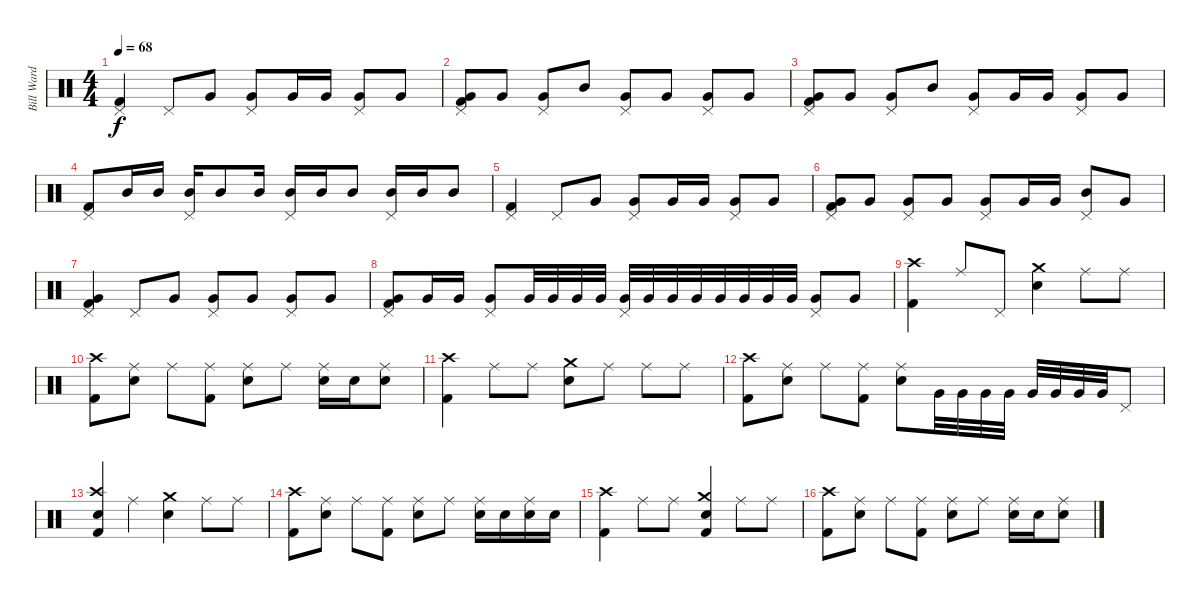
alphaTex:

\track ("Bill Ward - Drums" "Bill Ward ") {instrument percussion}
\staff {score}
\articulation defaults
\ts (4 4)
\tempo 68
\clef neutral
\ks c
("Pedal Hi-Hat (hit)" "Kick (hit) 2").4{dy f} "Pedal Hi-Hat (hit)".8 "Very Low Tom (hit)".8 ("Pedal Hi-Hat (hit)" "Very Low Tom (hit)").8 "Very Low Tom (hit)".16 "Very Low Tom (hit)".16 ("Pedal Hi-Hat (hit)" "Very Low Tom (hit)").8 "Very Low Tom (hit)".8 |
("Pedal Hi-Hat (hit)" "Very Low Tom (hit)" "Kick (hit) 2").8 "Very Low Tom (hit)".8 ("Pedal Hi-Hat (hit)" "Very Low Tom (hit)").8 "Mid Tom (hit)".8 ("Pedal Hi-Hat (hit)" "Very Low Tom (hit)").8 "Very Low Tom (hit)".8 ("Pedal Hi-Hat (hit)" "Very Low Tom (hit)").8 "Very Low Tom (hit)".8 |
("Pedal Hi-Hat (hit)" "Very Low Tom (hit)" "Kick (hit) 2").8 "Very Low Tom (hit)".8 ("Pedal Hi-Hat (hit)" "Very Low Tom (hit)").8 "Mid Tom (hit)".8 ("Pedal Hi-Hat (hit)" "Very Low Tom (hit)").8 "Very Low Tom (hit)".16 "Very Low Tom (hit)".16 ("Pedal Hi-Hat (hit)" "Very Low Tom (hit)").8 "Very Low Tom (hit)".8 |
("Pedal Hi-Hat (hit)" "Kick (hit) 2").8 "Mid Tom (hit)".16 "Mid Tom (hit)".16 ("Pedal Hi-Hat (hit)" "Mid Tom (hit)").16 "Mid Tom (hit)".8 "Mid Tom (hit)".16 ("Pedal Hi-Hat (hit)" "Mid Tom (hit)").16 "Mid Tom (hit)".16 "Mid Tom (hit)".8 ("Pedal Hi-Hat (hit)" "Mid Tom (hit)").16 "Mid Tom (hit)".16 "Mid Tom (hit)".8 |
("Pedal Hi-Hat (hit)" "Kick (hit) 2").4 "Pedal Hi-Hat (hit)".8 "Very Low Tom (hit)".8 ("Pedal Hi-Hat (hit)" "Very Low Tom (hit)").8 "Very Low Tom (hit)".16 "Very Low Tom (hit)".16 ("Pedal Hi-Hat (hit)" "Very Low Tom (hit)").8 "Very Low Tom (hit)".8 |
("Pedal Hi-Hat (hit)" "Very Low Tom (hit)" "Kick (hit) 2").8 "Very Low Tom (hit)".8 ("Pedal Hi-Hat (hit)" "Very Low Tom (hit)").8 "Very Low Tom (hit)".8 ("Pedal Hi-Hat (hit)" "Very Low Tom (hit)").8 "Very Low Tom (hit)".16 "Very Low Tom (hit)".16 ("Pedal Hi-Hat (hit)" "Mid Tom (hit)").8 "Very Low Tom (hit)".8 |
("Pedal Hi-Hat (hit)" "Very Low Tom (hit)" "Kick (hit) 2").4 "Pedal Hi-Hat (hit)".8 "Very Low Tom (hit)".8 ("Pedal Hi-Hat (hit)" "Very Low Tom (hit)").8 "Very Low Tom (hit)".8 ("Pedal Hi-Hat (hit)" "Very Low Tom (hit)").8 "Very Low Tom (hit)".8 |
("Pedal Hi-Hat (hit)" "Very Low Tom (hit)" "Kick (hit) 2").8 "Very Low Tom (hit)".16 "Very Low Tom (hit)".16 ("Pedal Hi-Hat (hit)" "Very Low Tom (hit)").8 "Very Low Tom (hit)".32 "Very Low Tom (hit)".32 "Very Low Tom (hit)".32 "Very Low Tom (hit)".32 ("Pedal Hi-Hat (hit)" "Very Low Tom (hit)").32 "Very Low Tom (hit)".32 "Very Low Tom (hit)".32 "Very Low Tom (hit)".32 "Very Low Tom (hit)".32 "Very Low Tom (hit)".32 "Very Low Tom (hit)".32 "Very Low Tom (hit)".32 ("Pedal Hi-Hat (hit)" "Very Low Tom (hit)").8 "Very Low Tom (hit)".8 |
("Crash high (hit)" "Kick (hit) 2").4 "Ride (middle)".8 "Pedal Hi-Hat (hit)".8 ("Crash medium (hit)" "Snare (hit) 2").4 "Ride (middle)".8 "Ride (middle)".8 |
("Crash high (hit)" "Kick (hit) 2").8 ("Ride (middle)" "Snare (hit) 2").8 "Ride (middle)".8 ("Ride (middle)" "Kick (hit) 2").8 ("Ride (middle)" "Snare (hit) 2").8 "Ride (middle)".8 ("Ride (middle)" "Snare (hit) 2").16 "Snare (hit) 2".16 ("Ride (middle)" "Snare (hit) 2").8 |
("Crash high (hit)" "Kick (hit) 2").4 "Ride (middle)".8 "Ride (middle)".8 ("Crash medium (hit)" "Snare (hit) 2").8 "Ride (middle)".8 "Ride (middle)".8 "Ride (middle)".8 |
("Crash high (hit)" "Kick (hit) 2").8 ("Ride (middle)" "Snare (hit) 2").8 "Ride (middle)".8 ("Ride (middle)" "Kick (hit) 2").8 ("Ride (middle)" "Snare (hit) 2").8 "Very Low Tom (hit)".32 "Very Low Tom (hit)".32 "Very Low Tom (hit)".32 "Very Low Tom (hit)".32 "Very Low Tom (hit)".32 "Very Low Tom (hit)".32 "Very Low Tom (hit)".32 "Very Low Tom (hit)".32 "Pedal Hi-Hat (hit)".8 |
("Crash high (hit)" "Snare (hit) 2" "Kick (hit) 2").4 "Ride (middle)".4 ("Crash medium (hit)" "Snare (hit) 2").4 "Ride (middle)".8 "Ride (middle)".8 |
("Crash high (hit)" "Kick (hit) 2").8 ("Ride (middle)" "Snare (hit) 2").8 "Ride (middle)".8 ("Ride (middle)" "Kick (hit) 2").8 ("Ride (middle)" "Snare (hit) 2").8 "Ride (middle)".8 ("Ride (middle)" "Snare (hit) 2").16 "Snare (hit) 2".16 ("Ride (middle)" "Snare (hit) 2").16 "Snare (hit) 2".16 |
("Crash high (hit)" "Kick (hit) 2").4 "Ride (middle)".8 "Ride (middle)".8 ("Crash medium (hit)" "Snare (hit) 2" "Kick (hit) 2").4 "Ride (middle)".8 "Ride (middle)".8 |
("Crash high (hit)" "Kick (hit) 2").8 ("Ride (middle)" "Snare (hit) 2").8 "Ride (middle)".8 ("Ride (middle)" "Kick (hit) 2").8 ("Ride (middle)" "Snare (hit) 2").8 "Ride (middle)".8 ("Ride (middle)" "Snare (hit) 2").16 "Snare (hit) 2".16 ("Ride (middle)" "Snare (hit) 2").8
